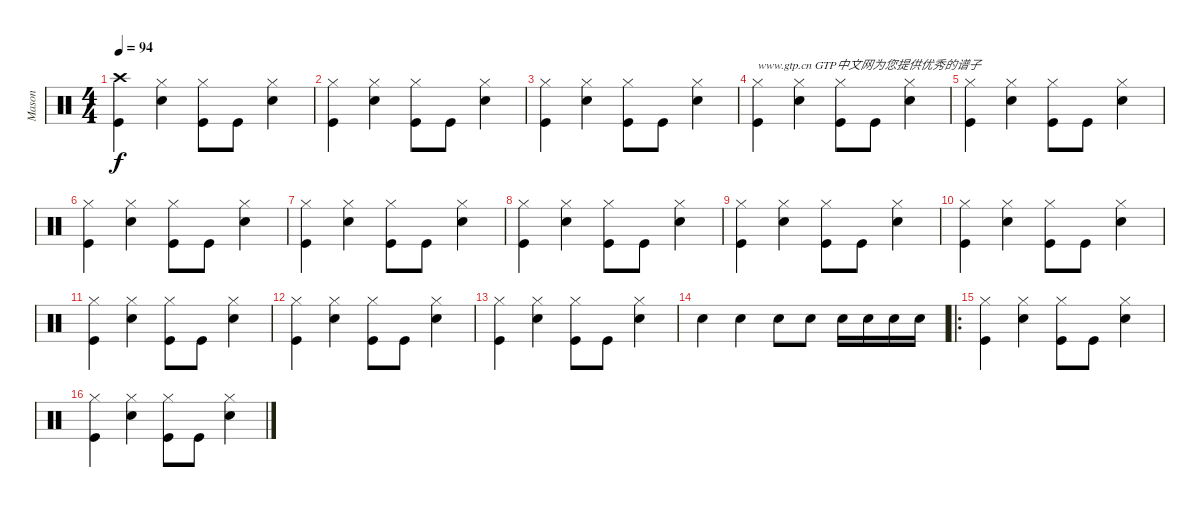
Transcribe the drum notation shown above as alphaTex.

\track ("Mason" "Mason") {instrument percussion}
\staff {score}
\articulation defaults
\ts (4 4)
\tempo 94
\clef neutral
\ks c
("Kick (hit)" "Crash high (hit)").4{dy f} ("Snare (hit) 2" "Hi-Hat (closed)").4 ("Kick (hit)" "Hi-Hat (closed)").8 "Kick (hit)".8 ("Snare (hit) 2" "Hi-Hat (closed)").4 |
("Kick (hit)" "Hi-Hat (closed)").4 ("Snare (hit) 2" "Hi-Hat (closed)").4 ("Kick (hit)" "Hi-Hat (closed)").8 "Kick (hit)".8 ("Snare (hit) 2" "Hi-Hat (closed)").4 |
("Kick (hit)" "Hi-Hat (closed)").4 ("Snare (hit) 2" "Hi-Hat (closed)").4 ("Kick (hit)" "Hi-Hat (closed)").8 "Kick (hit)".8 ("Snare (hit) 2" "Hi-Hat (closed)").4 |
("Kick (hit)" "Hi-Hat (closed)").4{txt "www.gtp.cn GTP中文网为您提供优秀的谱子"} ("Snare (hit) 2" "Hi-Hat (closed)").4 ("Kick (hit)" "Hi-Hat (closed)").8 "Kick (hit)".8 ("Snare (hit) 2" "Hi-Hat (closed)").4 |
("Kick (hit)" "Hi-Hat (closed)").4 ("Snare (hit) 2" "Hi-Hat (closed)").4 ("Kick (hit)" "Hi-Hat (closed)").8 "Kick (hit)".8 ("Snare (hit) 2" "Hi-Hat (closed)").4 |
("Kick (hit)" "Hi-Hat (closed)").4 ("Snare (hit) 2" "Hi-Hat (closed)").4 ("Kick (hit)" "Hi-Hat (closed)").8 "Kick (hit)".8 ("Snare (hit) 2" "Hi-Hat (closed)").4 |
("Kick (hit)" "Hi-Hat (closed)").4 ("Snare (hit) 2" "Hi-Hat (closed)").4 ("Kick (hit)" "Hi-Hat (closed)").8 "Kick (hit)".8 ("Snare (hit) 2" "Hi-Hat (closed)").4 |
("Kick (hit)" "Hi-Hat (closed)").4 ("Snare (hit) 2" "Hi-Hat (closed)").4 ("Kick (hit)" "Hi-Hat (closed)").8 "Kick (hit)".8 ("Snare (hit) 2" "Hi-Hat (closed)").4 |
("Kick (hit)" "Hi-Hat (closed)").4 ("Snare (hit) 2" "Hi-Hat (closed)").4 ("Kick (hit)" "Hi-Hat (closed)").8 "Kick (hit)".8 ("Snare (hit) 2" "Hi-Hat (closed)").4 |
("Kick (hit)" "Hi-Hat (closed)").4 ("Snare (hit) 2" "Hi-Hat (closed)").4 ("Kick (hit)" "Hi-Hat (closed)").8 "Kick (hit)".8 ("Snare (hit) 2" "Hi-Hat (closed)").4 |
("Kick (hit)" "Hi-Hat (closed)").4 ("Snare (hit) 2" "Hi-Hat (closed)").4 ("Kick (hit)" "Hi-Hat (closed)").8 "Kick (hit)".8 ("Snare (hit) 2" "Hi-Hat (closed)").4 |
("Kick (hit)" "Hi-Hat (closed)").4 ("Snare (hit) 2" "Hi-Hat (closed)").4 ("Kick (hit)" "Hi-Hat (closed)").8 "Kick (hit)".8 ("Snare (hit) 2" "Hi-Hat (closed)").4 |
("Kick (hit)" "Hi-Hat (closed)").4 ("Snare (hit) 2" "Hi-Hat (closed)").4 ("Kick (hit)" "Hi-Hat (closed)").8 "Kick (hit)".8 ("Snare (hit) 2" "Hi-Hat (closed)").4 |
"Snare (hit) 2".4 "Snare (hit) 2".4 "Snare (hit) 2".8 "Snare (hit) 2".8 "Snare (hit) 2".16 "Snare (hit) 2".16 "Snare (hit) 2".16 "Snare (hit) 2".16 |
\ro
("Kick (hit)" "Hi-Hat (closed)").4 ("Snare (hit) 2" "Hi-Hat (closed)").4 ("Kick (hit)" "Hi-Hat (closed)").8 "Kick (hit)".8 ("Snare (hit) 2" "Hi-Hat (closed)").4 |
("Kick (hit)" "Hi-Hat (closed)").4 ("Snare (hit) 2" "Hi-Hat (closed)").4 ("Kick (hit)" "Hi-Hat (closed)").8 "Kick (hit)".8 ("Snare (hit) 2" "Hi-Hat (closed)").4
